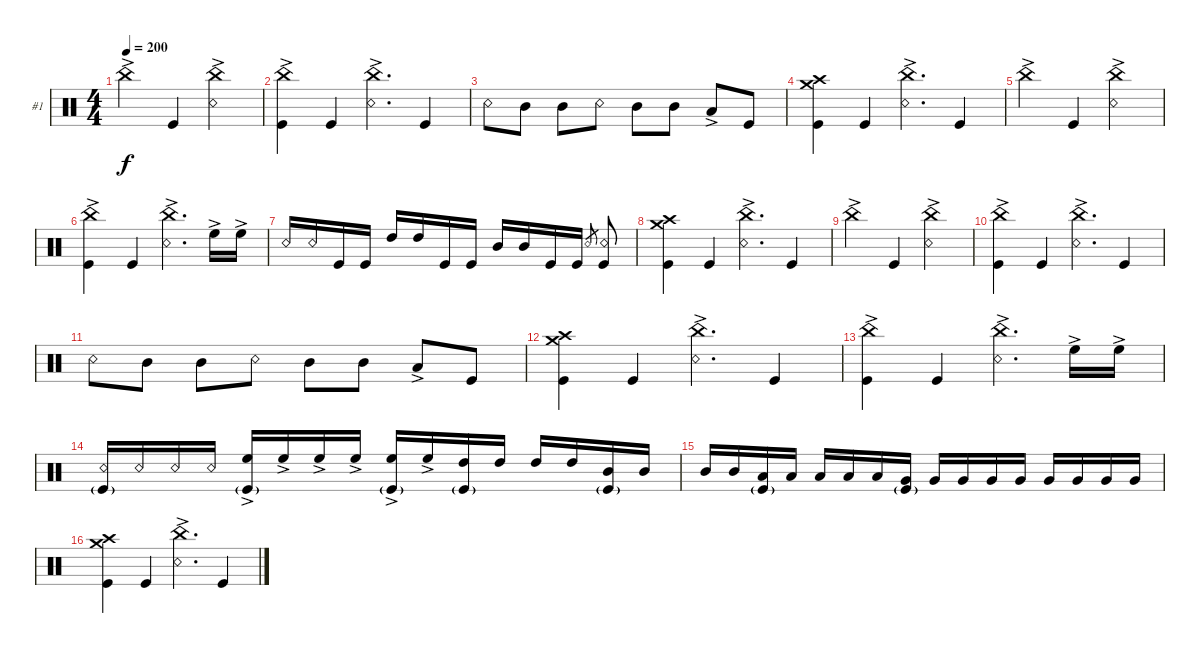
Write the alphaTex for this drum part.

\bracketExtendMode groupsimilarinstruments
\firstSystemTrackNameOrientation horizontal
\otherSystemsTrackNameOrientation horizontal
\track ("Joey Jordison" "#1") {instrument percussion}
\staff {score}
\articulation defaults
\ts (4 4)
\tempo 200
\clef neutral
\ks c "China (hit)"{ac}.4{dy f} "Kick (hit)".4
("Snare (rim shot)" "China (hit)"{ac}).4 |
("Kick (hit)" "China (hit)"{ac}).4 "Kick (hit)".4 ("Snare (rim shot)" "China (hit)"{ac}).4{d} "Kick (hit)".4 |
"Snare (rim shot)".8 "Mid Tom (hit)".8 "Mid Tom (hit)".8 "Snare (rim shot)".8 "Mid Tom (hit)".8 "Mid Tom (hit)".8 "Low Tom (hit)"{ac}.8 "Kick (hit)".8 |
("Kick (hit)" "Crash medium (hit)" "Crash high (hit)").4 "Kick (hit)".4 ("Snare (rim shot)" "China (hit)"{ac}).4{d} "Kick (hit)".4 |
"China (hit)"{ac}.4 "Kick (hit)".4 ("Snare (rim shot)" "China (hit)"{ac}).4 |
("Kick (hit)" "China (hit)"{ac}).4 "Kick (hit)".4 ("Snare (rim shot)" "China (hit)"{ac}).4{d} "High Floor Tom (hit)"{ac}.16 "High Floor Tom (hit)"{ac}.16 |
"Snare (rim shot)".16 "Snare (rim shot)".16 "Kick (hit)".16 "Kick (hit)".16 "High Tom (hit)".16 "High Tom (hit)".16 "Kick (hit)".16 "Kick (hit)".16 "Mid Tom (hit)".16 "Mid Tom (hit)".16 "Kick (hit)".16 "Kick (hit)".16 "Snare (rim shot)".8{gr} ("Snare (rim shot)" "Kick (hit)").8 |
("Kick (hit)" "Crash medium (hit)" "Crash high (hit)").4 "Kick (hit)".4 ("Snare (rim shot)" "China (hit)"{ac}).4{d} "Kick (hit)".4 |
"China (hit)"{ac}.4 "Kick (hit)".4 ("Snare (rim shot)" "China (hit)"{ac}).4 |
("Kick (hit)" "China (hit)"{ac}).4 "Kick (hit)".4 ("Snare (rim shot)" "China (hit)"{ac}).4{d} "Kick (hit)".4 |
"Snare (rim shot)".8 "Mid Tom (hit)".8 "Mid Tom (hit)".8 "Snare (rim shot)".8 "Mid Tom (hit)".8 "Mid Tom (hit)".8 "Low Tom (hit)"{ac}.8 "Kick (hit)".8 |
("Kick (hit)" "Crash medium (hit)" "Crash high (hit)").4 "Kick (hit)".4 ("Snare (rim shot)" "China (hit)"{ac}).4{d} "Kick (hit)".4 |
("Kick (hit)" "China (hit)"{ac}).4 "Kick (hit)".4 ("Snare (rim shot)" "China (hit)"{ac}).4{d} "High Floor Tom (hit)"{ac}.16 "High Floor Tom (hit)"{ac}.16 |
("Snare (rim shot)" "Kick (hit)"{g}).16 "Snare (rim shot)".16 "Snare (rim shot)".16 "Snare (rim shot)".16 ("High Floor Tom (hit)"{ac} "Kick (hit)"{g}).16 "High Floor Tom (hit)"{ac}.16 "High Floor Tom (hit)"{ac}.16 "High Floor Tom (hit)"{ac}.16 ("High Floor Tom (hit)"{ac} "Kick (hit)"{g}).16 "High Floor Tom (hit)"{ac}.16 ("High Tom (hit)" "Kick (hit)"{g}).16 "High Tom (hit)".16 "High Tom (hit)".16 "High Tom (hit)".16 ("Mid Tom (hit)" "Kick (hit)"{g}).16 "Mid Tom (hit)".16 |
"Mid Tom (hit)".16 "Mid Tom (hit)".16 ("Low Tom (hit)" "Kick (hit)"{g}).16 "Low Tom (hit)".16 "Low Tom (hit)".16 "Low Tom (hit)".16 "Low Tom (hit)".16 ("Very Low Tom (hit)" "Kick (hit)"{g}).16 "Very Low Tom (hit)".16 "Very Low Tom (hit)".16 "Very Low Tom (hit)".16 "Very Low Tom (hit)".16 "Very Low Tom (hit)".16 "Very Low Tom (hit)".16 "Very Low Tom (hit)".16 "Very Low Tom (hit)".16 |
("Kick (hit)" "Crash medium (hit)" "Crash high (hit)").4 "Kick (hit)".4 ("Snare (rim shot)" "China (hit)"{ac}).4{d} "Kick (hit)".4
